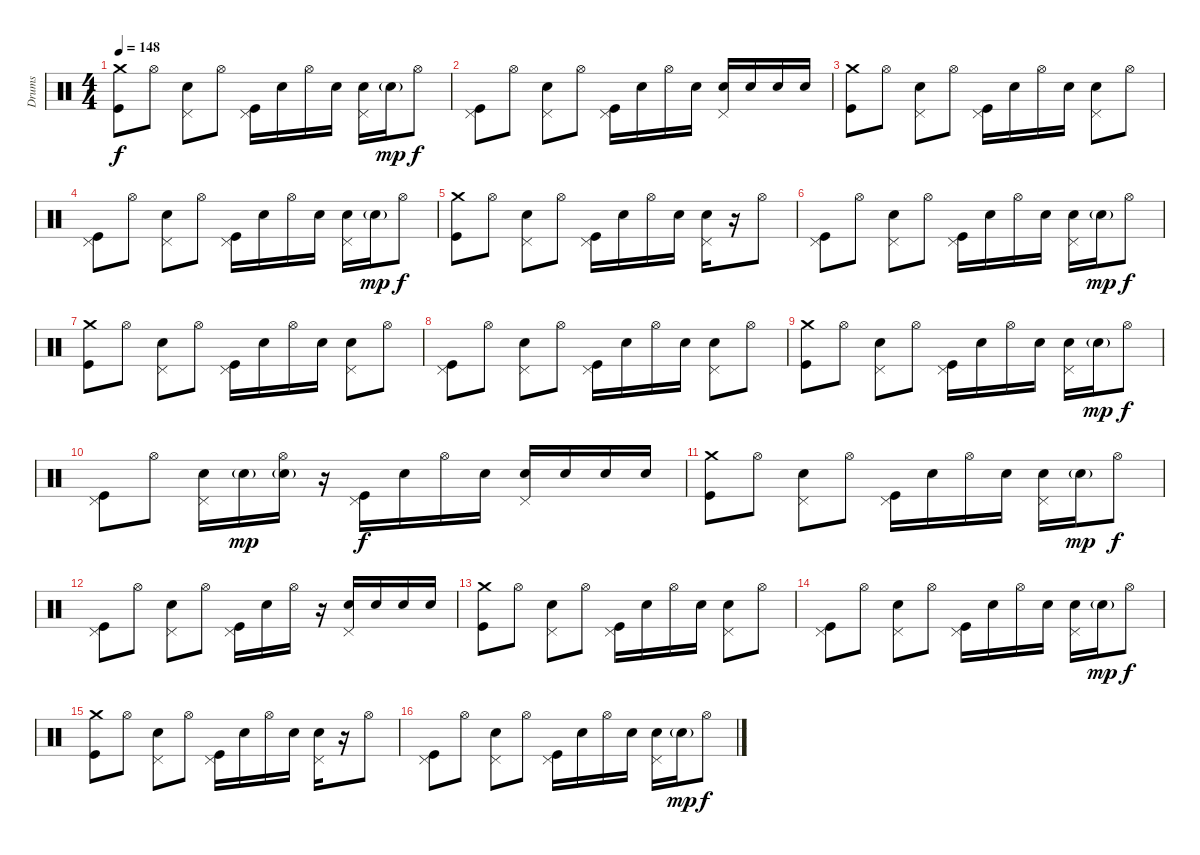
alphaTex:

\track ("Drums" "Drums") {instrument percussion}
\staff {score}
\articulation defaults
\ts (4 4)
\tempo 148
\clef neutral
\ks c
("Crash medium (hit)" "Kick (hit)").8{dy f} "Hi-Hat (open)".8 ("Pedal Hi-Hat (hit)" "Electric Snare (hit)").8 "Hi-Hat (open)".8 ("Pedal Hi-Hat (hit)" "Kick (hit)").16 "Electric Snare (hit)".16 "Hi-Hat (open)".16 "Electric Snare (hit)".16 ("Pedal Hi-Hat (hit)" "Electric Snare (hit)").16 "Electric Snare (hit)"{g}.16{dy mp} "Hi-Hat (open)".8{dy f} |
("Pedal Hi-Hat (hit)" "Kick (hit)").8 "Hi-Hat (open)".8 ("Pedal Hi-Hat (hit)" "Electric Snare (hit)").8 "Hi-Hat (open)".8 ("Pedal Hi-Hat (hit)" "Kick (hit)").16 "Electric Snare (hit)".16 "Hi-Hat (open)".16 "Electric Snare (hit)".16 ("Pedal Hi-Hat (hit)" "Electric Snare (hit)").16 "Electric Snare (hit)".16 "Electric Snare (hit)".16 "Electric Snare (hit)".16 |
("Crash medium (hit)" "Kick (hit)").8 "Hi-Hat (open)".8 ("Pedal Hi-Hat (hit)" "Electric Snare (hit)").8 "Hi-Hat (open)".8 ("Pedal Hi-Hat (hit)" "Kick (hit)").16 "Electric Snare (hit)".16 "Hi-Hat (open)".16 "Electric Snare (hit)".16 ("Pedal Hi-Hat (hit)" "Electric Snare (hit)").8 "Hi-Hat (open)".8 |
("Pedal Hi-Hat (hit)" "Kick (hit)").8 "Hi-Hat (open)".8 ("Pedal Hi-Hat (hit)" "Electric Snare (hit)").8 "Hi-Hat (open)".8 ("Pedal Hi-Hat (hit)" "Kick (hit)").16 "Electric Snare (hit)".16 "Hi-Hat (open)".16 "Electric Snare (hit)".16 ("Pedal Hi-Hat (hit)" "Electric Snare (hit)").16 "Electric Snare (hit)"{g}.16{dy mp} "Hi-Hat (open)".8{dy f} |
("Crash medium (hit)" "Kick (hit)").8 "Hi-Hat (open)".8 ("Pedal Hi-Hat (hit)" "Electric Snare (hit)").8 "Hi-Hat (open)".8 ("Pedal Hi-Hat (hit)" "Kick (hit)").16 "Electric Snare (hit)".16 "Hi-Hat (open)".16 "Electric Snare (hit)".16 ("Pedal Hi-Hat (hit)" "Electric Snare (hit)").16 r.16 "Hi-Hat (open)".8 |
("Pedal Hi-Hat (hit)" "Kick (hit)").8 "Hi-Hat (open)".8 ("Pedal Hi-Hat (hit)" "Electric Snare (hit)").8 "Hi-Hat (open)".8 ("Pedal Hi-Hat (hit)" "Kick (hit)").16 "Electric Snare (hit)".16 "Hi-Hat (open)".16 "Electric Snare (hit)".16 ("Pedal Hi-Hat (hit)" "Electric Snare (hit)").16 "Electric Snare (hit)"{g}.16{dy mp} "Hi-Hat (open)".8{dy f} |
("Crash medium (hit)" "Kick (hit)").8 "Hi-Hat (open)".8 ("Pedal Hi-Hat (hit)" "Electric Snare (hit)").8 "Hi-Hat (open)".8 ("Pedal Hi-Hat (hit)" "Kick (hit)").16 "Electric Snare (hit)".16 "Hi-Hat (open)".16 "Electric Snare (hit)".16 ("Pedal Hi-Hat (hit)" "Electric Snare (hit)").8 "Hi-Hat (open)".8 |
("Pedal Hi-Hat (hit)" "Kick (hit)").8 "Hi-Hat (open)".8 ("Pedal Hi-Hat (hit)" "Electric Snare (hit)").8 "Hi-Hat (open)".8 ("Pedal Hi-Hat (hit)" "Kick (hit)").16 "Electric Snare (hit)".16 "Hi-Hat (open)".16 "Electric Snare (hit)".16 ("Pedal Hi-Hat (hit)" "Electric Snare (hit)").8 "Hi-Hat (open)".8 |
("Crash medium (hit)" "Kick (hit)").8 "Hi-Hat (open)".8 ("Pedal Hi-Hat (hit)" "Electric Snare (hit)").8 "Hi-Hat (open)".8 ("Pedal Hi-Hat (hit)" "Kick (hit)").16 "Electric Snare (hit)".16 "Hi-Hat (open)".16 "Electric Snare (hit)".16 ("Pedal Hi-Hat (hit)" "Electric Snare (hit)").16 "Electric Snare (hit)"{g}.16{dy mp} "Hi-Hat (open)".8{dy f} |
("Pedal Hi-Hat (hit)" "Kick (hit)").8 "Hi-Hat (open)".8 ("Pedal Hi-Hat (hit)" "Electric Snare (hit)").16 "Electric Snare (hit)"{g}.16{dy mp} ("Hi-Hat (open)" "Electric Snare (hit)"{g}).16 r.16 ("Pedal Hi-Hat (hit)" "Kick (hit)").16{dy f} "Electric Snare (hit)".16 "Hi-Hat (open)".16 "Electric Snare (hit)".16 ("Pedal Hi-Hat (hit)" "Electric Snare (hit)").16 "Electric Snare (hit)".16 "Electric Snare (hit)".16 "Electric Snare (hit)".16 |
("Crash medium (hit)" "Kick (hit)").8 "Hi-Hat (open)".8 ("Pedal Hi-Hat (hit)" "Electric Snare (hit)").8 "Hi-Hat (open)".8 ("Pedal Hi-Hat (hit)" "Kick (hit)").16 "Electric Snare (hit)".16 "Hi-Hat (open)".16 "Electric Snare (hit)".16 ("Pedal Hi-Hat (hit)" "Electric Snare (hit)").16 "Electric Snare (hit)"{g}.16{dy mp} "Hi-Hat (open)".8{dy f} |
("Pedal Hi-Hat (hit)" "Kick (hit)").8 "Hi-Hat (open)".8 ("Pedal Hi-Hat (hit)" "Electric Snare (hit)").8 "Hi-Hat (open)".8 ("Pedal Hi-Hat (hit)" "Kick (hit)").16 "Electric Snare (hit)".16 "Hi-Hat (open)".16 r.16 ("Pedal Hi-Hat (hit)" "Electric Snare (hit)").16 "Electric Snare (hit)".16 "Electric Snare (hit)".16 "Electric Snare (hit)".16 |
("Crash medium (hit)" "Kick (hit)").8 "Hi-Hat (open)".8 ("Pedal Hi-Hat (hit)" "Electric Snare (hit)").8 "Hi-Hat (open)".8 ("Pedal Hi-Hat (hit)" "Kick (hit)").16 "Electric Snare (hit)".16 "Hi-Hat (open)".16 "Electric Snare (hit)".16 ("Pedal Hi-Hat (hit)" "Electric Snare (hit)").8 "Hi-Hat (open)".8 |
("Pedal Hi-Hat (hit)" "Kick (hit)").8 "Hi-Hat (open)".8 ("Pedal Hi-Hat (hit)" "Electric Snare (hit)").8 "Hi-Hat (open)".8 ("Pedal Hi-Hat (hit)" "Kick (hit)").16 "Electric Snare (hit)".16 "Hi-Hat (open)".16 "Electric Snare (hit)".16 ("Pedal Hi-Hat (hit)" "Electric Snare (hit)").16 "Electric Snare (hit)"{g}.16{dy mp} "Hi-Hat (open)".8{dy f} |
("Crash medium (hit)" "Kick (hit)").8 "Hi-Hat (open)".8 ("Pedal Hi-Hat (hit)" "Electric Snare (hit)").8 "Hi-Hat (open)".8 ("Pedal Hi-Hat (hit)" "Kick (hit)").16 "Electric Snare (hit)".16 "Hi-Hat (open)".16 "Electric Snare (hit)".16 ("Pedal Hi-Hat (hit)" "Electric Snare (hit)").16 r.16 "Hi-Hat (open)".8 |
("Pedal Hi-Hat (hit)" "Kick (hit)").8 "Hi-Hat (open)".8 ("Pedal Hi-Hat (hit)" "Electric Snare (hit)").8 "Hi-Hat (open)".8 ("Pedal Hi-Hat (hit)" "Kick (hit)").16 "Electric Snare (hit)".16 "Hi-Hat (open)".16 "Electric Snare (hit)".16 ("Pedal Hi-Hat (hit)" "Electric Snare (hit)").16 "Electric Snare (hit)"{g}.16{dy mp} "Hi-Hat (open)".8{dy f}
